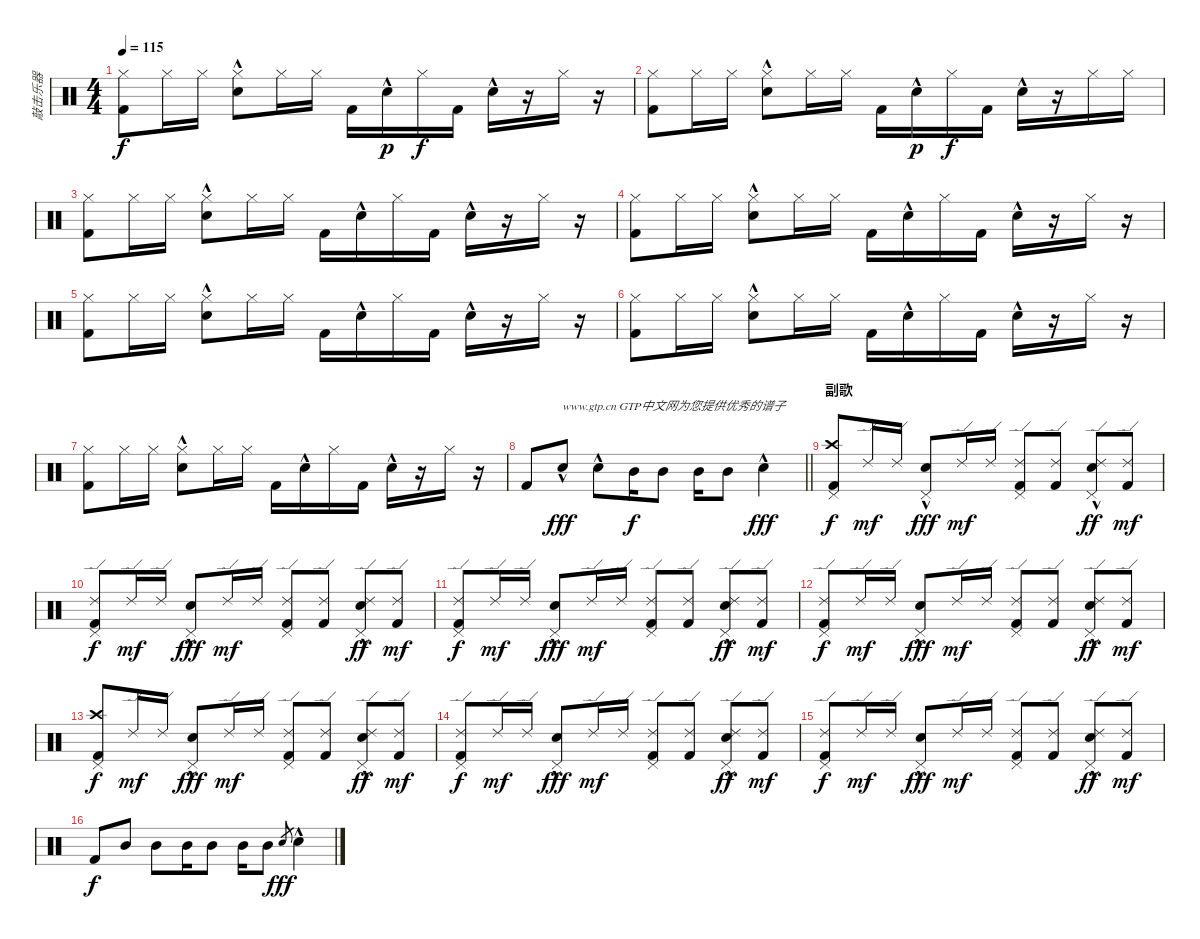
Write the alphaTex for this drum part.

\track ("敲击乐器" "敲击乐器") {instrument percussion}
\staff {score}
\articulation defaults
\ts (4 4)
\tempo 115
\clef neutral
\ks c
("Hi-Hat (closed)" "Kick (hit) 2").8{dy f} "Hi-Hat (closed)".16 "Hi-Hat (closed)".16 ("Hi-Hat (closed)" "Electric Snare (hit)"{hac}).8 "Hi-Hat (closed)".16 "Hi-Hat (closed)".16 "Kick (hit) 2".16 "Electric Snare (hit)"{hac}.16{dy p} "Hi-Hat (closed)".16{dy f} "Kick (hit) 2".16 "Electric Snare (hit)"{hac}.16 r.16 "Hi-Hat (closed)".16 r.16 |
("Hi-Hat (closed)" "Kick (hit) 2").8 "Hi-Hat (closed)".16 "Hi-Hat (closed)".16 ("Hi-Hat (closed)" "Electric Snare (hit)"{hac}).8 "Hi-Hat (closed)".16 "Hi-Hat (closed)".16 "Kick (hit) 2".16 "Electric Snare (hit)"{hac}.16{dy p} "Hi-Hat (closed)".16{dy f} "Kick (hit) 2".16 "Electric Snare (hit)"{hac}.16 r.16 "Hi-Hat (closed)".16 "Hi-Hat (closed)".16 |
("Hi-Hat (closed)" "Kick (hit) 2").8 "Hi-Hat (closed)".16 "Hi-Hat (closed)".16 ("Hi-Hat (closed)" "Electric Snare (hit)"{hac}).8 "Hi-Hat (closed)".16 "Hi-Hat (closed)".16 "Kick (hit) 2".16 "Electric Snare (hit)"{hac}.16 "Hi-Hat (closed)".16 "Kick (hit) 2".16 "Electric Snare (hit)"{hac}.16 r.16 "Hi-Hat (closed)".16 r.16 |
("Hi-Hat (closed)" "Kick (hit) 2").8 "Hi-Hat (closed)".16 "Hi-Hat (closed)".16 ("Hi-Hat (closed)" "Electric Snare (hit)"{hac}).8 "Hi-Hat (closed)".16 "Hi-Hat (closed)".16 "Kick (hit) 2".16 "Electric Snare (hit)"{hac}.16 "Hi-Hat (closed)".16 "Kick (hit) 2".16 "Electric Snare (hit)"{hac}.16 r.16 "Hi-Hat (closed)".16 r.16 |
("Hi-Hat (closed)" "Kick (hit) 2").8 "Hi-Hat (closed)".16 "Hi-Hat (closed)".16 ("Hi-Hat (closed)" "Electric Snare (hit)"{hac}).8 "Hi-Hat (closed)".16 "Hi-Hat (closed)".16 "Kick (hit) 2".16 "Electric Snare (hit)"{hac}.16 "Hi-Hat (closed)".16 "Kick (hit) 2".16 "Electric Snare (hit)"{hac}.16 r.16 "Hi-Hat (closed)".16 r.16 |
("Hi-Hat (closed)" "Kick (hit) 2").8 "Hi-Hat (closed)".16 "Hi-Hat (closed)".16 ("Hi-Hat (closed)" "Electric Snare (hit)"{hac}).8 "Hi-Hat (closed)".16 "Hi-Hat (closed)".16 "Kick (hit) 2".16 "Electric Snare (hit)"{hac}.16 "Hi-Hat (closed)".16 "Kick (hit) 2".16 "Electric Snare (hit)"{hac}.16 r.16 "Hi-Hat (closed)".16 r.16 |
("Hi-Hat (closed)" "Kick (hit) 2").8 "Hi-Hat (closed)".16 "Hi-Hat (closed)".16 ("Hi-Hat (closed)" "Electric Snare (hit)"{hac}).8 "Hi-Hat (closed)".16 "Hi-Hat (closed)".16 "Kick (hit) 2".16 "Electric Snare (hit)"{hac}.16 "Hi-Hat (closed)".16 "Kick (hit) 2".16 "Electric Snare (hit)"{hac}.16 r.16 "Hi-Hat (closed)".16 r.16 |
\barLineRight lightlight "Kick (hit) 2".8 "Electric Snare (hit)"{hac}.8{txt "www.gtp.cn GTP中文网为您提供优秀的谱子" dy fff} "Electric Snare (hit)"{hac}.8 "Mid Tom (hit)".16{dy f} "Mid Tom (hit)".8 "Mid Tom (hit)".16 "Mid Tom (hit)".8 "Electric Snare (hit)"{hac}.4{dy fff}
|
\section ("" "副歌")
("Crash high (hit)" "Pedal Hi-Hat (hit)" "Kick (hit) 2").8{dy f} "Ride (edge) 2".16{dy mf} "Ride (edge) 2".16 ("Electric Snare (hit)"{hac} "Pedal Hi-Hat (hit)").8{dy fff} "Ride (edge) 2".16{dy mf} "Ride (edge) 2".16 ("Ride (edge) 2" "Pedal Hi-Hat (hit)" "Kick (hit) 2").8 ("Ride (edge) 2" "Kick (hit) 2").8 ("Ride (edge) 2" "Electric Snare (hit)"{hac} "Pedal Hi-Hat (hit)").8{dy ff} ("Ride (edge) 2" "Kick (hit) 2").8{dy mf} |
("Ride (edge) 2" "Pedal Hi-Hat (hit)" "Kick (hit) 2").8{dy f} "Ride (edge) 2".16{dy mf} "Ride (edge) 2".16 ("Electric Snare (hit)"{hac} "Pedal Hi-Hat (hit)").8{dy fff} "Ride (edge) 2".16{dy mf} "Ride (edge) 2".16 ("Ride (edge) 2" "Pedal Hi-Hat (hit)" "Kick (hit) 2").8 ("Ride (edge) 2" "Kick (hit) 2").8 ("Ride (edge) 2" "Electric Snare (hit)"{hac} "Pedal Hi-Hat (hit)").8{dy ff} ("Ride (edge) 2" "Kick (hit) 2").8{dy mf} |
("Ride (edge) 2" "Pedal Hi-Hat (hit)" "Kick (hit) 2").8{dy f} "Ride (edge) 2".16{dy mf} "Ride (edge) 2".16 ("Electric Snare (hit)"{hac} "Pedal Hi-Hat (hit)").8{dy fff} "Ride (edge) 2".16{dy mf} "Ride (edge) 2".16 ("Ride (edge) 2" "Pedal Hi-Hat (hit)" "Kick (hit) 2").8 ("Ride (edge) 2" "Kick (hit) 2").8 ("Ride (edge) 2" "Electric Snare (hit)"{hac} "Pedal Hi-Hat (hit)").8{dy ff} ("Ride (edge) 2" "Kick (hit) 2").8{dy mf} |
("Ride (edge) 2" "Pedal Hi-Hat (hit)" "Kick (hit) 2").8{dy f} "Ride (edge) 2".16{dy mf} "Ride (edge) 2".16 ("Electric Snare (hit)"{hac} "Pedal Hi-Hat (hit)").8{dy fff} "Ride (edge) 2".16{dy mf} "Ride (edge) 2".16 ("Ride (edge) 2" "Pedal Hi-Hat (hit)" "Kick (hit) 2").8 ("Ride (edge) 2" "Kick (hit) 2").8 ("Ride (edge) 2" "Electric Snare (hit)"{hac} "Pedal Hi-Hat (hit)").8{dy ff} ("Ride (edge) 2" "Kick (hit) 2").8{dy mf} |
("Crash high (hit)" "Pedal Hi-Hat (hit)" "Kick (hit) 2").8{dy f} "Ride (edge) 2".16{dy mf} "Ride (edge) 2".16 ("Electric Snare (hit)"{hac} "Pedal Hi-Hat (hit)").8{dy fff} "Ride (edge) 2".16{dy mf} "Ride (edge) 2".16 ("Ride (edge) 2" "Pedal Hi-Hat (hit)" "Kick (hit) 2").8 ("Ride (edge) 2" "Kick (hit) 2").8 ("Ride (edge) 2" "Electric Snare (hit)"{hac} "Pedal Hi-Hat (hit)").8{dy ff} ("Ride (edge) 2" "Kick (hit) 2").8{dy mf} |
("Ride (edge) 2" "Pedal Hi-Hat (hit)" "Kick (hit) 2").8{dy f} "Ride (edge) 2".16{dy mf} "Ride (edge) 2".16 ("Electric Snare (hit)"{hac} "Pedal Hi-Hat (hit)").8{dy fff} "Ride (edge) 2".16{dy mf} "Ride (edge) 2".16 ("Ride (edge) 2" "Pedal Hi-Hat (hit)" "Kick (hit) 2").8 ("Ride (edge) 2" "Kick (hit) 2").8 ("Ride (edge) 2" "Electric Snare (hit)"{hac} "Pedal Hi-Hat (hit)").8{dy ff} ("Ride (edge) 2" "Kick (hit) 2").8{dy mf} |
("Ride (edge) 2" "Pedal Hi-Hat (hit)" "Kick (hit) 2").8{dy f} "Ride (edge) 2".16{dy mf} "Ride (edge) 2".16 ("Electric Snare (hit)"{hac} "Pedal Hi-Hat (hit)").8{dy fff} "Ride (edge) 2".16{dy mf} "Ride (edge) 2".16 ("Ride (edge) 2" "Pedal Hi-Hat (hit)" "Kick (hit) 2").8 ("Ride (edge) 2" "Kick (hit) 2").8 ("Ride (edge) 2" "Electric Snare (hit)"{hac} "Pedal Hi-Hat (hit)").8{dy ff} ("Ride (edge) 2" "Kick (hit) 2").8{dy mf} |
"Kick (hit) 2".8{dy f} "Mid Tom (hit)".8 "Mid Tom (hit)".8 "Mid Tom (hit)".16 "Mid Tom (hit)".8 "Mid Tom (hit)".16 "Mid Tom (hit)".8 "Electric Snare (hit)".8{gr dy fff} "Electric Snare (hit)"{hac}.4
